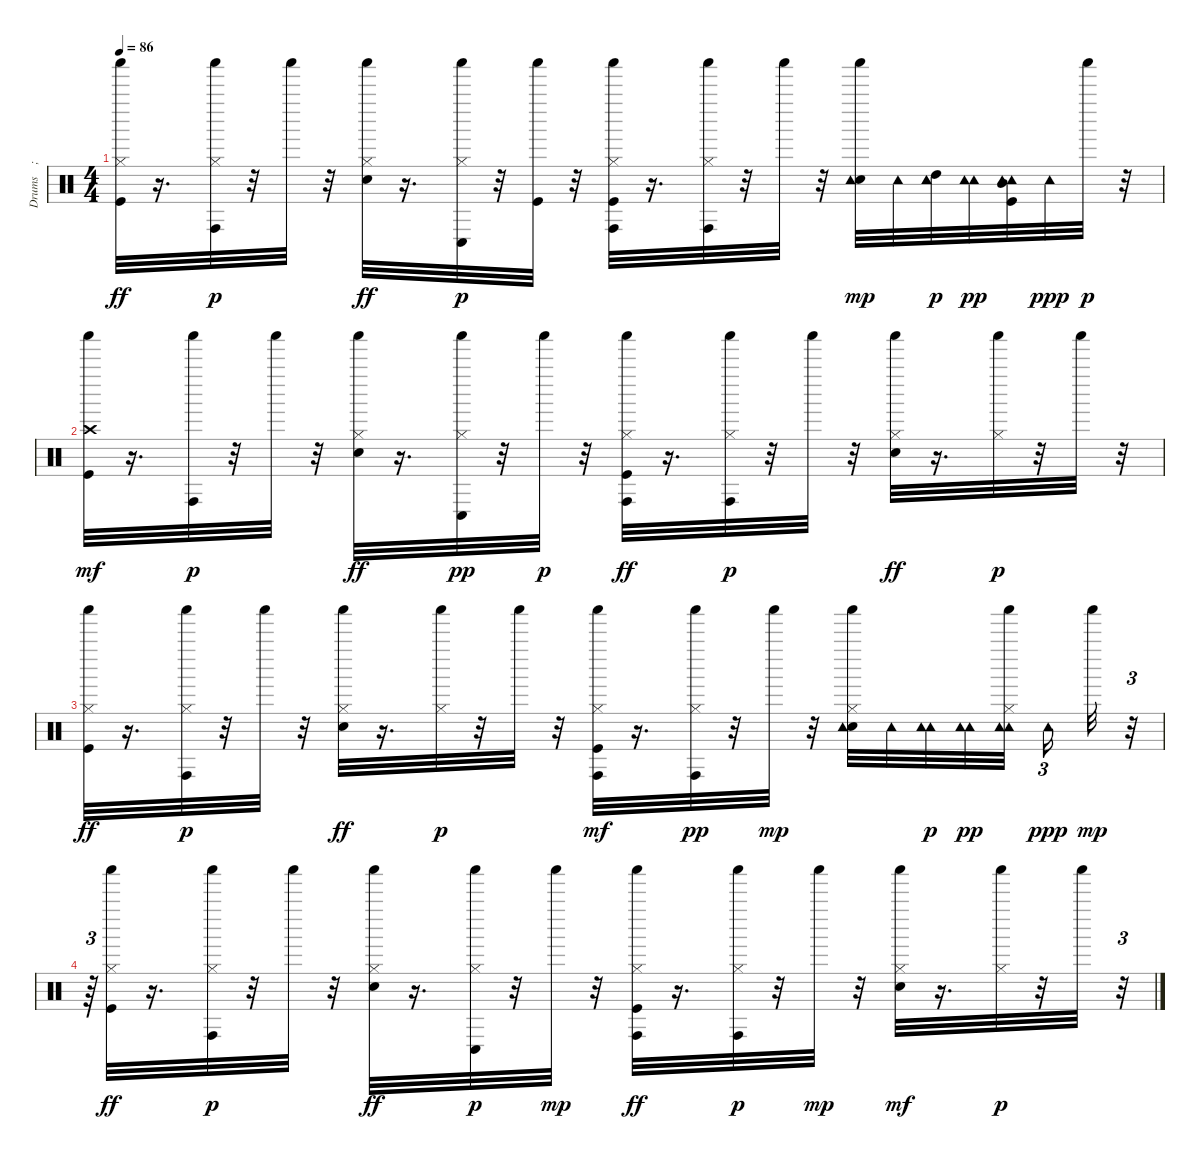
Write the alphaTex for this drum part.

\track ("Drums    ; Standard" "Drums    ;") {instrument percussion}
\staff {score}
\articulation defaults
\ts (4 4)
\tempo 86
\clef neutral
\ks c
("Shaker (hit)" "Kick (hit)" "Hi-Hat (closed)").32{dy ff} r.16{d} ("Shaker (hit)" "Conga high (hit)" "Hi-Hat (closed)").32{dy p} r.32 "Shaker (hit)".32 r.32 ("Electric Snare (hit)" "Shaker (hit)" "Hi-Hat (closed)").32{dy ff} r.16{d} ("Shaker (hit)" "Conga low (hit)" "Hi-Hat (closed)").32{dy p} r.32 ("Shaker (hit)" "Kick (hit)").32 r.32 ("Kick (hit)" "Shaker (hit)" "Conga high (hit)" "Hi-Hat (closed)").32 r.16{d} ("Shaker (hit)" "Conga high (hit)" "Hi-Hat (closed)").32 r.32 "Shaker (hit)".32 r.32 ("Electric Snare (hit)" "Shaker (hit)" "Tambourine (hit)").32{dy mp} "Tambourine (hit)".32 ("Tambourine (hit)" "High Tom (hit)" "Tambourine (hit)").32{dy p} ("Tambourine (hit)" "Tambourine (hit)").32{dy pp} ("Tambourine (hit)" "Kick (hit)" "Mid Tom (hit)" "Tambourine (hit)").32 "Tambourine (hit)".32{dy ppp} "Shaker (hit)".32{dy p} r.32 |
("Crash high (hit)" "Shaker (hit)" "Kick (hit)").32{dy mf} r.16{d} ("Shaker (hit)" "Conga high (hit)").32{dy p} r.32 "Shaker (hit)".32 r.32 ("Electric Snare (hit)" "Shaker (hit)" "Hi-Hat (closed)").32{dy ff} r.16{d} ("Shaker (hit)" "Hi-Hat (closed)" "Conga low (hit)").32{dy pp} r.32 "Shaker (hit)".32{dy p} r.32 ("Kick (hit)" "Shaker (hit)" "Conga high (hit)" "Hi-Hat (closed)").32{dy ff} r.16{d} ("Conga high (hit)" "Shaker (hit)" "Hi-Hat (closed)").32{dy p} r.32 "Shaker (hit)".32 r.32 ("Electric Snare (hit)" "Shaker (hit)" "Hi-Hat (closed)").32{dy ff} r.16{d} ("Shaker (hit)" "Hi-Hat (closed)").32{dy p} r.32 "Shaker (hit)".32 r.32 |
("Kick (hit)" "Shaker (hit)" "Hi-Hat (closed)").32{dy ff} r.16{d} ("Shaker (hit)" "Hi-Hat (closed)" "Conga high (hit)").32{dy p} r.32 "Shaker (hit)".32 r.32 ("Electric Snare (hit)" "Shaker (hit)" "Hi-Hat (closed)").32{dy ff} r.16{d} ("Shaker (hit)" "Hi-Hat (closed)").32{dy p} r.32 "Shaker (hit)".32 r.32 ("Kick (hit)" "Shaker (hit)" "Conga high (hit)" "Hi-Hat (closed)").32{dy mf} r.16{d} ("Conga high (hit)" "Shaker (hit)" "Hi-Hat (closed)").32{dy pp} r.32 "Shaker (hit)".32{dy mp} r.32 ("Shaker (hit)" "Electric Snare (hit)" "Hi-Hat (closed)" "Tambourine (hit)").32 "Tambourine (hit)".32 ("Tambourine (hit)" "Tambourine (hit)").32{dy p} ("Tambourine (hit)" "Tambourine (hit)").32{dy pp} ("Tambourine (hit)" "Shaker (hit)" "Hi-Hat (closed)" "Tambourine (hit)").32 "Tambourine (hit)".16{tu (3 2) dy ppp} "Shaker (hit)".32{dy mp} r.32{tu (3 2)} |
r.64{tu (3 2)} ("Kick (hit)" "Shaker (hit)" "Hi-Hat (closed)").32{dy ff} r.16{d} ("Conga high (hit)" "Shaker (hit)" "Hi-Hat (closed)").32{dy p} r.32 "Shaker (hit)".32 r.32 ("Electric Snare (hit)" "Shaker (hit)" "Hi-Hat (closed)").32{dy ff} r.16{d} ("Conga low (hit)" "Shaker (hit)" "Hi-Hat (closed)").32{dy p} r.32 "Shaker (hit)".32{dy mp} r.32 ("Kick (hit)" "Conga high (hit)" "Shaker (hit)" "Hi-Hat (closed)").32{dy ff} r.16{d} ("Conga high (hit)" "Shaker (hit)" "Hi-Hat (closed)").32{dy p} r.32 "Shaker (hit)".32{dy mp} r.32 ("Shaker (hit)" "Electric Snare (hit)" "Hi-Hat (closed)").32{dy mf} r.16{d} ("Hi-Hat (closed)" "Shaker (hit)").32{dy p} r.32 "Shaker (hit)".32 r.32{tu (3 2)}
